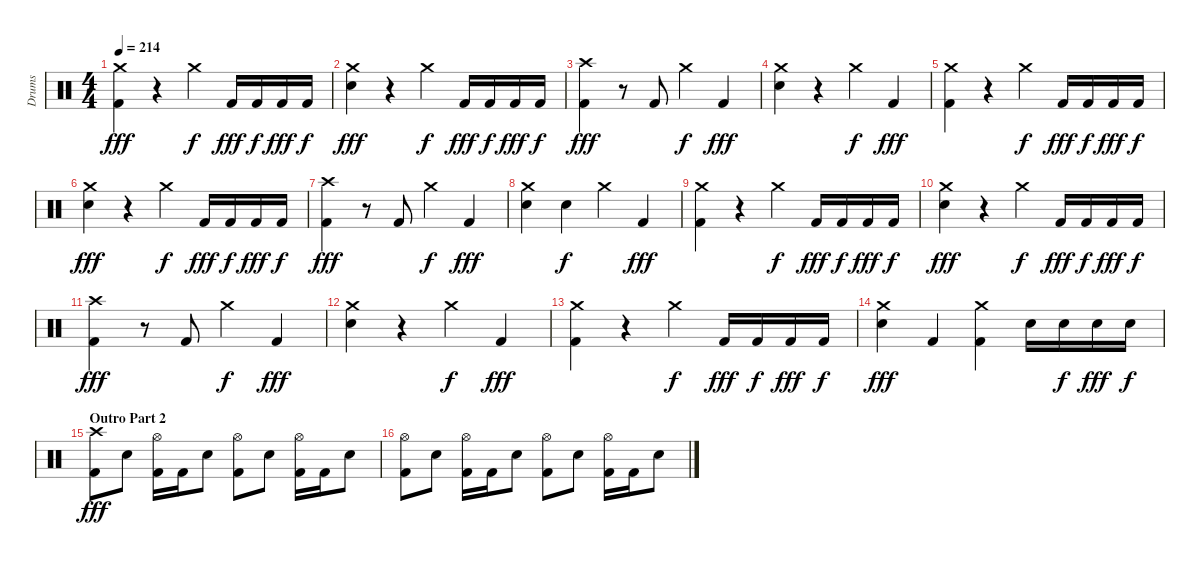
\track ("Drums" "Drums") {instrument percussion}
\staff {score}
\articulation defaults
\ts (4 4)
\tempo 214
\clef neutral
\ks c
("Crash medium (hit)" "Kick (hit) 2").4{dy fff} r.4 "Crash medium (hit)".4{dy f} "Kick (hit) 2".16{dy fff} "Kick (hit) 2".16{dy f} "Kick (hit) 2".16{dy fff} "Kick (hit) 2".16{dy f} |
("Crash medium (hit)" "Electric Snare (hit)").4{dy fff} r.4 "Crash medium (hit)".4{dy f} "Kick (hit) 2".16{dy fff} "Kick (hit) 2".16{dy f} "Kick (hit) 2".16{dy fff} "Kick (hit) 2".16{dy f} |
("Crash high (hit)" "Kick (hit) 2").4{dy fff} r.8 "Kick (hit) 2".8 "Crash medium (hit)".4{dy f} "Kick (hit) 2".4{dy fff} |
("Crash medium (hit)" "Electric Snare (hit)").4 r.4 "Crash medium (hit)".4{dy f} "Kick (hit) 2".4{dy fff} |
("Crash medium (hit)" "Kick (hit) 2").4 r.4 "Crash medium (hit)".4{dy f} "Kick (hit) 2".16{dy fff} "Kick (hit) 2".16{dy f} "Kick (hit) 2".16{dy fff} "Kick (hit) 2".16{dy f} |
("Crash medium (hit)" "Electric Snare (hit)").4{dy fff} r.4 "Crash medium (hit)".4{dy f} "Kick (hit) 2".16{dy fff} "Kick (hit) 2".16{dy f} "Kick (hit) 2".16{dy fff} "Kick (hit) 2".16{dy f} |
("Crash high (hit)" "Kick (hit) 2").4{dy fff} r.8 "Kick (hit) 2".8 "Crash medium (hit)".4{dy f} "Kick (hit) 2".4{dy fff} |
("Crash medium (hit)" "Electric Snare (hit)").4 "Electric Snare (hit)".4{dy f} "Crash medium (hit)".4 "Kick (hit) 2".4{dy fff} |
("Crash medium (hit)" "Kick (hit) 2").4 r.4 "Crash medium (hit)".4{dy f} "Kick (hit) 2".16{dy fff} "Kick (hit) 2".16{dy f} "Kick (hit) 2".16{dy fff} "Kick (hit) 2".16{dy f} |
("Crash medium (hit)" "Electric Snare (hit)").4{dy fff} r.4 "Crash medium (hit)".4{dy f} "Kick (hit) 2".16{dy fff} "Kick (hit) 2".16{dy f} "Kick (hit) 2".16{dy fff} "Kick (hit) 2".16{dy f} |
("Crash high (hit)" "Kick (hit) 2").4{dy fff} r.8 "Kick (hit) 2".8 "Crash medium (hit)".4{dy f} "Kick (hit) 2".4{dy fff} |
("Crash medium (hit)" "Electric Snare (hit)").4 r.4 "Crash medium (hit)".4{dy f} "Kick (hit) 2".4{dy fff} |
("Crash medium (hit)" "Kick (hit) 2").4 r.4 "Crash medium (hit)".4{dy f} "Kick (hit) 2".16{dy fff} "Kick (hit) 2".16{dy f} "Kick (hit) 2".16{dy fff} "Kick (hit) 2".16{dy f} |
("Crash medium (hit)" "Electric Snare (hit)").4{dy fff} "Kick (hit) 2".4 ("Crash medium (hit)" "Kick (hit) 2").4 "Electric Snare (hit)".16 "Electric Snare (hit)".16{dy f} "Electric Snare (hit)".16{dy fff} "Electric Snare (hit)".16{dy f} |
\section ("" "Outro Part 2")
("Crash high (hit)" "Kick (hit) 2").8{dy fff} "Electric Snare (hit)".8 ("Hi-Hat (open)" "Kick (hit) 2").16 "Kick (hit) 2".16 "Electric Snare (hit)".8 ("Hi-Hat (open)" "Kick (hit) 2").8 "Electric Snare (hit)".8 ("Hi-Hat (open)" "Kick (hit) 2").16 "Kick (hit) 2".16 "Electric Snare (hit)".8 |
("Hi-Hat (open)" "Kick (hit) 2").8 "Electric Snare (hit)".8 ("Hi-Hat (open)" "Kick (hit) 2").16 "Kick (hit) 2".16 "Electric Snare (hit)".8 ("Hi-Hat (open)" "Kick (hit) 2").8 "Electric Snare (hit)".8 ("Hi-Hat (open)" "Kick (hit) 2").16 "Kick (hit) 2".16 "Electric Snare (hit)".8
